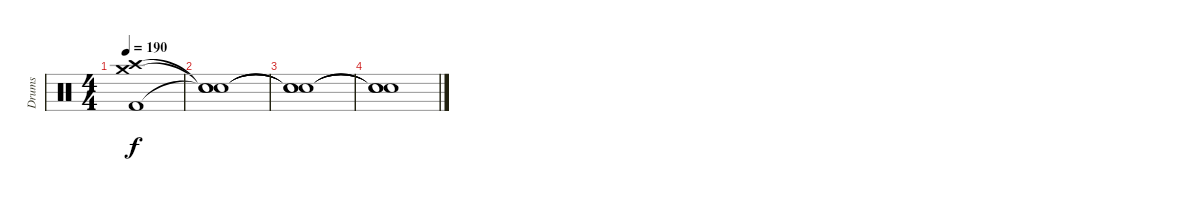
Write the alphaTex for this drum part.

\track ("Drums" "Drums") {instrument percussion}
\staff {score}
\articulation defaults
\ts (4 4)
\tempo 190
\clef neutral
\ks c
("Crash medium (hit)" "Crash high (hit)" "Kick (hit) 2").1{dy f} |
("Snare (hit)"{t} "Snare (hit)"{t} "Snare (hit)"{t}).1 |
("Snare (hit)"{t} "Snare (hit)"{t} "Snare (hit)"{t}).1 |
("Snare (hit)"{t} "Snare (hit)"{t} "Snare (hit)"{t}).1
